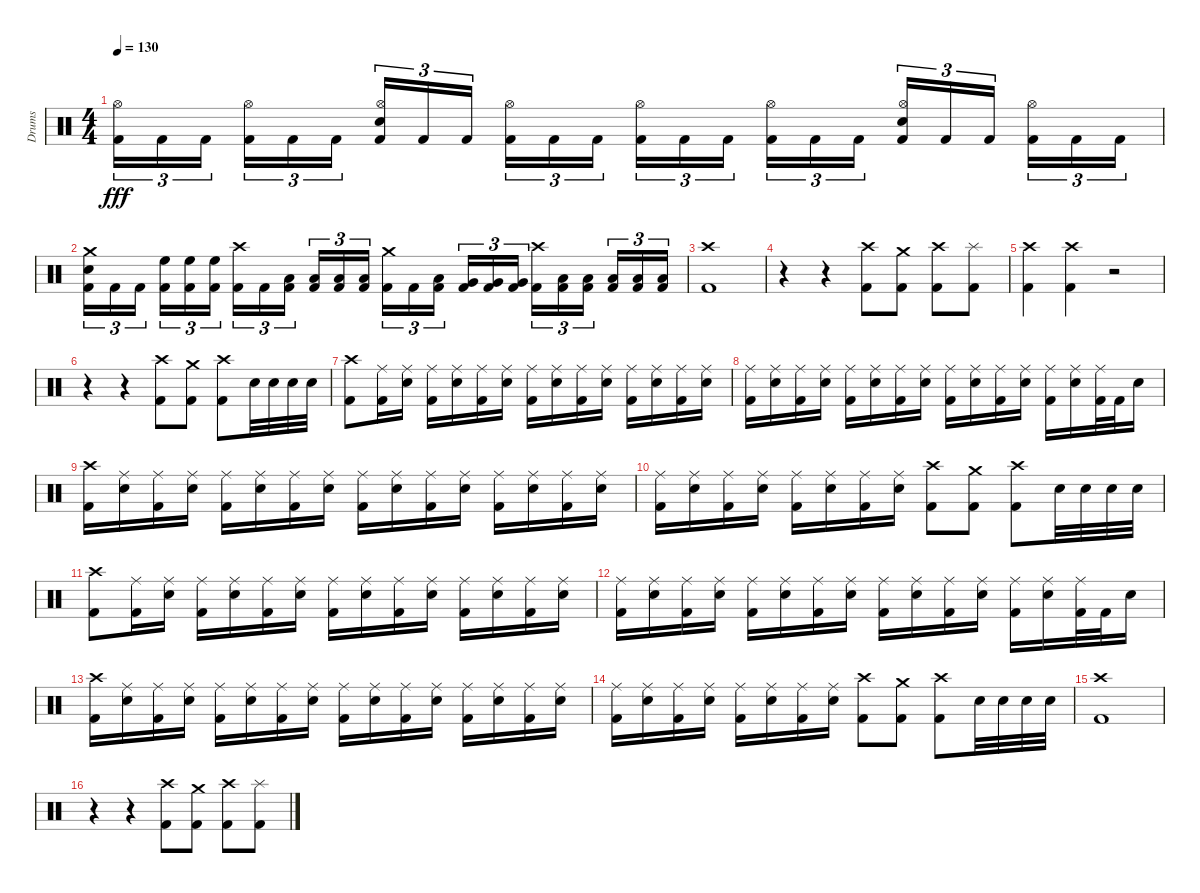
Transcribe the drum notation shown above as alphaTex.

\track ("Drums" "Drums") {instrument percussion}
\staff {score}
\articulation defaults
\ts (4 4)
\tempo 130
\clef neutral
\ks c
("Kick (hit) 2" "Hi-Hat (open)").16{tu (3 2) dy fff} "Kick (hit) 2".16{tu (3 2)} "Kick (hit) 2".16{tu (3 2) beam splitsecondary} ("Kick (hit) 2" "Hi-Hat (open)").16{tu (3 2)} "Kick (hit) 2".16{tu (3 2)} "Kick (hit) 2".16{tu (3 2)} ("Kick (hit) 2" "Hi-Hat (open)" "Snare (hit) 2").16{tu (3 2)} "Kick (hit) 2".16{tu (3 2)} "Kick (hit) 2".16{tu (3 2) beam splitsecondary} ("Kick (hit) 2" "Hi-Hat (open)").16{tu (3 2)} "Kick (hit) 2".16{tu (3 2)} "Kick (hit) 2".16{tu (3 2)} ("Kick (hit) 2" "Hi-Hat (open)").16{tu (3 2)} "Kick (hit) 2".16{tu (3 2)} "Kick (hit) 2".16{tu (3 2) beam splitsecondary} ("Kick (hit) 2" "Hi-Hat (open)").16{tu (3 2)} "Kick (hit) 2".16{tu (3 2)} "Kick (hit) 2".16{tu (3 2)} ("Kick (hit) 2" "Hi-Hat (open)" "Snare (hit) 2").16{tu (3 2)} "Kick (hit) 2".16{tu (3 2)} "Kick (hit) 2".16{tu (3 2) beam splitsecondary} ("Kick (hit) 2" "Hi-Hat (open)").16{tu (3 2)} "Kick (hit) 2".16{tu (3 2)} "Kick (hit) 2".16{tu (3 2)} |
("Kick (hit) 2" "Crash medium (hit)" "Snare (hit) 2").16{tu (3 2)} "Kick (hit) 2".16{tu (3 2)} "Kick (hit) 2".16{tu (3 2) beam splitsecondary} ("Kick (hit) 2" "High Floor Tom (hit)").16{tu (3 2)} ("Kick (hit) 2" "High Floor Tom (hit)").16{tu (3 2)} ("Kick (hit) 2" "High Floor Tom (hit)").16{tu (3 2)} ("Kick (hit) 2" "Crash high (hit)").16{tu (3 2)} "Kick (hit) 2".16{tu (3 2)} ("Kick (hit) 2" "Low Tom (hit)").16{tu (3 2) beam splitsecondary} ("Kick (hit) 2" "Low Tom (hit)").16{tu (3 2)} ("Kick (hit) 2" "Low Tom (hit)").16{tu (3 2)} ("Kick (hit) 2" "Low Tom (hit)").16{tu (3 2)} ("Kick (hit) 2" "Crash medium (hit)").16{tu (3 2)} "Kick (hit) 2".16{tu (3 2)} ("Kick (hit) 2" "Low Tom (hit)").16{tu (3 2) beam splitsecondary} ("Kick (hit) 2" "Very Low Tom (hit)").16{tu (3 2)} ("Kick (hit) 2" "Very Low Tom (hit)").16{tu (3 2)} ("Kick (hit) 2" "Very Low Tom (hit)").16{tu (3 2)} ("Kick (hit) 2" "Crash high (hit)").16{tu (3 2)} ("Kick (hit) 2" "Low Floor Tom (hit)").16{tu (3 2)} ("Kick (hit) 2" "Low Floor Tom (hit)").16{tu (3 2) beam splitsecondary} ("Kick (hit) 2" "Low Floor Tom (hit)").16{tu (3 2)} ("Kick (hit) 2" "Low Floor Tom (hit)").16{tu (3 2)} ("Kick (hit) 2" "Low Floor Tom (hit)").16{tu (3 2)} |
("Crash high (hit)" "Kick (hit) 2").1 |
r.4 r.4 ("Kick (hit) 2" "Crash high (hit)").8 ("Kick (hit) 2" "Crash medium (hit)").8 ("Kick (hit) 2" "Crash high (hit)").8 ("Kick (hit) 2" "Splash (hit)").8 |
("Kick (hit) 2" "Crash high (hit)").4 ("Kick (hit) 2" "Crash high (hit)").4 r.2 |
r.4 r.4 ("Kick (hit) 2" "Crash high (hit)").8 ("Kick (hit) 2" "Crash medium (hit)").8 ("Kick (hit) 2" "Crash high (hit)").8 "Snare (hit) 2".32 "Snare (hit) 2".32 "Snare (hit) 2".32 "Snare (hit) 2".32 |
("Kick (hit) 2" "Crash high (hit)").8 ("Kick (hit) 2" "Ride (middle)").16 ("Snare (hit) 2" "Ride (middle)").16 ("Kick (hit) 2" "Ride (middle)").16 ("Snare (hit) 2" "Ride (middle)").16 ("Kick (hit) 2" "Ride (middle)").16 ("Snare (hit) 2" "Ride (middle)").16 ("Kick (hit) 2" "Ride (middle)").16 ("Snare (hit) 2" "Ride (middle)").16 ("Kick (hit) 2" "Ride (middle)").16 ("Snare (hit) 2" "Ride (middle)").16 ("Kick (hit) 2" "Ride (middle)").16 ("Snare (hit) 2" "Ride (middle)").16 ("Kick (hit) 2" "Ride (middle)").16 ("Snare (hit) 2" "Ride (middle)").16 |
("Kick (hit) 2" "Ride (middle)").16 ("Snare (hit) 2" "Ride (middle)").16 ("Kick (hit) 2" "Ride (middle)").16 ("Snare (hit) 2" "Ride (middle)").16 ("Kick (hit) 2" "Ride (middle)").16 ("Snare (hit) 2" "Ride (middle)").16 ("Kick (hit) 2" "Ride (middle)").16 ("Snare (hit) 2" "Ride (middle)").16 ("Kick (hit) 2" "Ride (middle)").16 ("Snare (hit) 2" "Ride (middle)").16 ("Kick (hit) 2" "Ride (middle)").16 ("Snare (hit) 2" "Ride (middle)").16 ("Kick (hit) 2" "Ride (middle)").16 ("Snare (hit) 2" "Ride (middle)").16 ("Kick (hit) 2" "Ride (middle)").32 "Kick (hit) 2".32 "Snare (hit) 2".16 |
("Kick (hit) 2" "Crash high (hit)").16 ("Snare (hit) 2" "Ride (middle)").16 ("Kick (hit) 2" "Ride (middle)").16 ("Snare (hit) 2" "Ride (middle)").16 ("Kick (hit) 2" "Ride (middle)").16 ("Snare (hit) 2" "Ride (middle)").16 ("Kick (hit) 2" "Ride (middle)").16 ("Snare (hit) 2" "Ride (middle)").16 ("Kick (hit) 2" "Ride (middle)").16 ("Snare (hit) 2" "Ride (middle)").16 ("Kick (hit) 2" "Ride (middle)").16 ("Snare (hit) 2" "Ride (middle)").16 ("Kick (hit) 2" "Ride (middle)").16 ("Snare (hit) 2" "Ride (middle)").16 ("Kick (hit) 2" "Ride (middle)").16 ("Snare (hit) 2" "Ride (middle)").16 |
("Kick (hit) 2" "Ride (middle)").16 ("Snare (hit) 2" "Ride (middle)").16 ("Kick (hit) 2" "Ride (middle)").16 ("Snare (hit) 2" "Ride (middle)").16 ("Kick (hit) 2" "Ride (middle)").16 ("Snare (hit) 2" "Ride (middle)").16 ("Kick (hit) 2" "Ride (middle)").16 ("Snare (hit) 2" "Ride (middle)").16 ("Kick (hit) 2" "Crash high (hit)").8 ("Kick (hit) 2" "Crash medium (hit)").8 ("Kick (hit) 2" "Crash high (hit)").8 "Snare (hit) 2".32 "Snare (hit) 2".32 "Snare (hit) 2".32 "Snare (hit) 2".32 |
("Kick (hit) 2" "Crash high (hit)").8 ("Kick (hit) 2" "Ride (middle)").16 ("Snare (hit) 2" "Ride (middle)").16 ("Kick (hit) 2" "Ride (middle)").16 ("Snare (hit) 2" "Ride (middle)").16 ("Kick (hit) 2" "Ride (middle)").16 ("Snare (hit) 2" "Ride (middle)").16 ("Kick (hit) 2" "Ride (middle)").16 ("Snare (hit) 2" "Ride (middle)").16 ("Kick (hit) 2" "Ride (middle)").16 ("Snare (hit) 2" "Ride (middle)").16 ("Kick (hit) 2" "Ride (middle)").16 ("Snare (hit) 2" "Ride (middle)").16 ("Kick (hit) 2" "Ride (middle)").16 ("Snare (hit) 2" "Ride (middle)").16 |
("Kick (hit) 2" "Ride (middle)").16 ("Snare (hit) 2" "Ride (middle)").16 ("Kick (hit) 2" "Ride (middle)").16 ("Snare (hit) 2" "Ride (middle)").16 ("Kick (hit) 2" "Ride (middle)").16 ("Snare (hit) 2" "Ride (middle)").16 ("Kick (hit) 2" "Ride (middle)").16 ("Snare (hit) 2" "Ride (middle)").16 ("Kick (hit) 2" "Ride (middle)").16 ("Snare (hit) 2" "Ride (middle)").16 ("Kick (hit) 2" "Ride (middle)").16 ("Snare (hit) 2" "Ride (middle)").16 ("Kick (hit) 2" "Ride (middle)").16 ("Snare (hit) 2" "Ride (middle)").16 ("Kick (hit) 2" "Ride (middle)").32 "Kick (hit) 2".32 "Snare (hit) 2".16 |
("Kick (hit) 2" "Crash high (hit)").16 ("Snare (hit) 2" "Ride (middle)").16 ("Kick (hit) 2" "Ride (middle)").16 ("Snare (hit) 2" "Ride (middle)").16 ("Kick (hit) 2" "Ride (middle)").16 ("Snare (hit) 2" "Ride (middle)").16 ("Kick (hit) 2" "Ride (middle)").16 ("Snare (hit) 2" "Ride (middle)").16 ("Kick (hit) 2" "Ride (middle)").16 ("Snare (hit) 2" "Ride (middle)").16 ("Kick (hit) 2" "Ride (middle)").16 ("Snare (hit) 2" "Ride (middle)").16 ("Kick (hit) 2" "Ride (middle)").16 ("Snare (hit) 2" "Ride (middle)").16 ("Kick (hit) 2" "Ride (middle)").16 ("Snare (hit) 2" "Ride (middle)").16 |
("Kick (hit) 2" "Ride (middle)").16 ("Snare (hit) 2" "Ride (middle)").16 ("Kick (hit) 2" "Ride (middle)").16 ("Snare (hit) 2" "Ride (middle)").16 ("Kick (hit) 2" "Ride (middle)").16 ("Snare (hit) 2" "Ride (middle)").16 ("Kick (hit) 2" "Ride (middle)").16 ("Snare (hit) 2" "Ride (middle)").16 ("Kick (hit) 2" "Crash high (hit)").8 ("Kick (hit) 2" "Crash medium (hit)").8 ("Kick (hit) 2" "Crash high (hit)").8 "Snare (hit) 2".32 "Snare (hit) 2".32 "Snare (hit) 2".32 "Snare (hit) 2".32 |
("Crash high (hit)" "Kick (hit) 2").1 |
r.4 r.4 ("Kick (hit) 2" "Crash high (hit)").8 ("Kick (hit) 2" "Crash medium (hit)").8 ("Kick (hit) 2" "Crash high (hit)").8 ("Kick (hit) 2" "Splash (hit)").8
